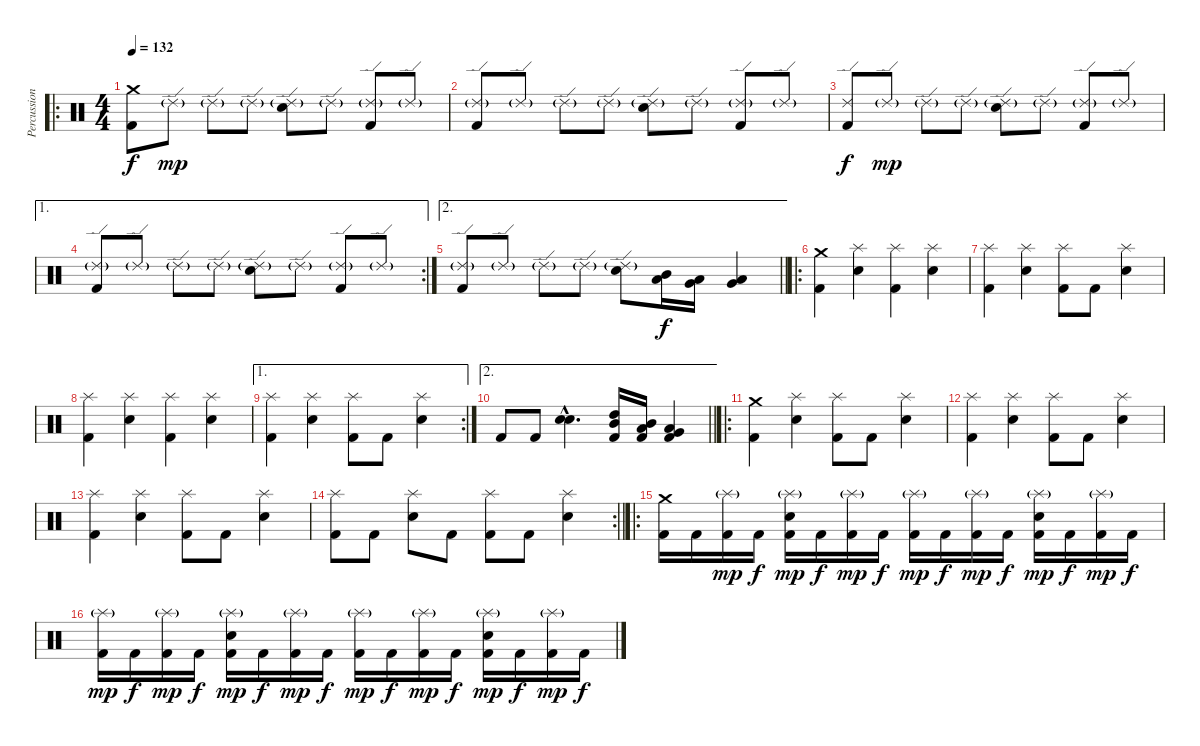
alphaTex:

\track ("Percussion" "Percussion") {instrument percussion}
\staff {score}
\articulation defaults
\ro
\ts (4 4)
\section ("" "")
\tempo 132
\clef neutral
\ks c
("Kick (hit) 2" "Crash medium (hit)").8{dy f} "Ride (edge) 2"{g}.8{dy mp} "Ride (edge) 2"{g}.8 "Ride (edge) 2"{g}.8 ("Snare (hit) 2" "Ride (edge) 2"{g}).8 "Ride (edge) 2"{g}.8 ("Kick (hit) 2" "Ride (edge) 2"{g}).8 "Ride (edge) 2"{g}.8 |
("Kick (hit) 2" "Ride (edge) 2"{g}).8 "Ride (edge) 2"{g}.8 "Ride (edge) 2"{g}.8 "Ride (edge) 2"{g}.8 ("Snare (hit) 2" "Ride (edge) 2"{g}).8 "Ride (edge) 2"{g}.8 ("Kick (hit) 2" "Ride (edge) 2"{g}).8 "Ride (edge) 2"{g}.8 |
("Kick (hit) 2" "Ride (edge) 2").8{dy f} "Ride (edge) 2"{g}.8{dy mp} "Ride (edge) 2"{g}.8 "Ride (edge) 2"{g}.8 ("Snare (hit) 2" "Ride (edge) 2"{g}).8 "Ride (edge) 2"{g}.8 ("Kick (hit) 2" "Ride (edge) 2"{g}).8 "Ride (edge) 2"{g}.8 |
\ae 1
\rc 2
("Kick (hit) 2" "Ride (edge) 2"{g}).8 "Ride (edge) 2"{g}.8 "Ride (edge) 2"{g}.8 "Ride (edge) 2"{g}.8 ("Snare (hit) 2" "Ride (edge) 2"{g}).8 "Ride (edge) 2"{g}.8 ("Kick (hit) 2" "Ride (edge) 2"{g}).8 "Ride (edge) 2"{g}.8 |
\ae 2
\barLineRight lightlight
("Kick (hit) 2" "Ride (edge) 2"{g}).8 "Ride (edge) 2"{g}.8 "Ride (edge) 2"{g}.8 "Ride (edge) 2"{g}.8 ("Snare (hit) 2" "Ride (edge) 2"{g}).8 ("Low Tom (hit)" "Mid Tom (hit)").16{dy f} ("Very Low Tom (hit)" "Low Tom (hit)").16 ("Low Floor Tom (hit)" "Very Low Tom (hit)").4 |
\ro
\section ("" "")
("Kick (hit) 2" "Crash medium (hit)").4 ("Snare (hit) 2" "Splash (hit)").4 ("Kick (hit) 2" "Splash (hit)").4 ("Snare (hit) 2" "Splash (hit)").4 |
("Kick (hit) 2" "Splash (hit)").4 ("Snare (hit) 2" "Splash (hit)").4 ("Kick (hit) 2" "Splash (hit)").8 "Kick (hit) 2".8 ("Snare (hit) 2" "Splash (hit)").4 |
("Kick (hit) 2" "Splash (hit)").4 ("Snare (hit) 2" "Splash (hit)").4 ("Kick (hit) 2" "Splash (hit)").4 ("Snare (hit) 2" "Splash (hit)").4 |
\ae 1
\rc 2
("Kick (hit) 2" "Splash (hit)").4 ("Snare (hit) 2" "Splash (hit)").4 ("Kick (hit) 2" "Splash (hit)").8 "Kick (hit) 2".8 ("Snare (hit) 2" "Splash (hit)").4 |
\ae 2
\barLineRight lightlight "Kick (hit) 2".8 "Kick (hit) 2".8
("Snare (hit) 2"{hac} "Snare (hit) 2"{hac}).4{d} ("Kick (hit) 2" "High Tom (hit)" "Mid Tom (hit)").16 ("Kick (hit) 2" "Mid Tom (hit)" "Low Tom (hit)").16 ("Kick (hit) 2" "Low Tom (hit)" "Very Low Tom (hit)").4 |
\ro
\section ("" "")
("Kick (hit) 2" "Crash medium (hit)").4 ("Snare (hit) 2" "Splash (hit)").4 ("Kick (hit) 2" "Splash (hit)").8 "Kick (hit) 2".8 ("Snare (hit) 2" "Splash (hit)").4 |
("Kick (hit) 2" "Splash (hit)").4 ("Snare (hit) 2" "Splash (hit)").4 ("Kick (hit) 2" "Splash (hit)").8 "Kick (hit) 2".8 ("Snare (hit) 2" "Splash (hit)").4 |
("Kick (hit) 2" "Splash (hit)").4 ("Snare (hit) 2" "Splash (hit)").4 ("Kick (hit) 2" "Splash (hit)").8 "Kick (hit) 2".8 ("Snare (hit) 2" "Splash (hit)").4 |
\rc 2
\barLineRight lightlight
("Kick (hit) 2" "Splash (hit)").8 "Kick (hit) 2".8 ("Snare (hit) 2" "Splash (hit)").8 "Kick (hit) 2".8 ("Kick (hit) 2" "Splash (hit)").8 "Kick (hit) 2".8 ("Snare (hit) 2" "Splash (hit)").4 |
\ro
\section ("" "")
("Kick (hit) 2" "Crash medium (hit)").16 "Kick (hit) 2".16 ("Kick (hit) 2" "Splash (hit)"{g}).16{dy mp} "Kick (hit) 2".16{dy f} ("Kick (hit) 2" "Snare (hit) 2" "Splash (hit)"{g}).16{dy mp} "Kick (hit) 2".16{dy f} ("Kick (hit) 2" "Splash (hit)"{g}).16{dy mp} "Kick (hit) 2".16{dy f} ("Kick (hit) 2" "Splash (hit)"{g}).16{dy mp} "Kick (hit) 2".16{dy f} ("Kick (hit) 2" "Splash (hit)"{g}).16{dy mp} "Kick (hit) 2".16{dy f} ("Kick (hit) 2" "Snare (hit) 2" "Splash (hit)"{g}).16{dy mp} "Kick (hit) 2".16{dy f} ("Kick (hit) 2" "Splash (hit)"{g}).16{dy mp} "Kick (hit) 2".16{dy f} |
("Kick (hit) 2" "Splash (hit)"{g}).16{dy mp} "Kick (hit) 2".16{dy f} ("Kick (hit) 2" "Splash (hit)"{g}).16{dy mp} "Kick (hit) 2".16{dy f} ("Kick (hit) 2" "Snare (hit) 2" "Splash (hit)"{g}).16{dy mp} "Kick (hit) 2".16{dy f} ("Kick (hit) 2" "Splash (hit)"{g}).16{dy mp} "Kick (hit) 2".16{dy f} ("Kick (hit) 2" "Splash (hit)"{g}).16{dy mp} "Kick (hit) 2".16{dy f} ("Kick (hit) 2" "Splash (hit)"{g}).16{dy mp} "Kick (hit) 2".16{dy f} ("Kick (hit) 2" "Snare (hit) 2" "Splash (hit)"{g}).16{dy mp} "Kick (hit) 2".16{dy f} ("Kick (hit) 2" "Splash (hit)"{g}).16{dy mp} "Kick (hit) 2".16{dy f}
